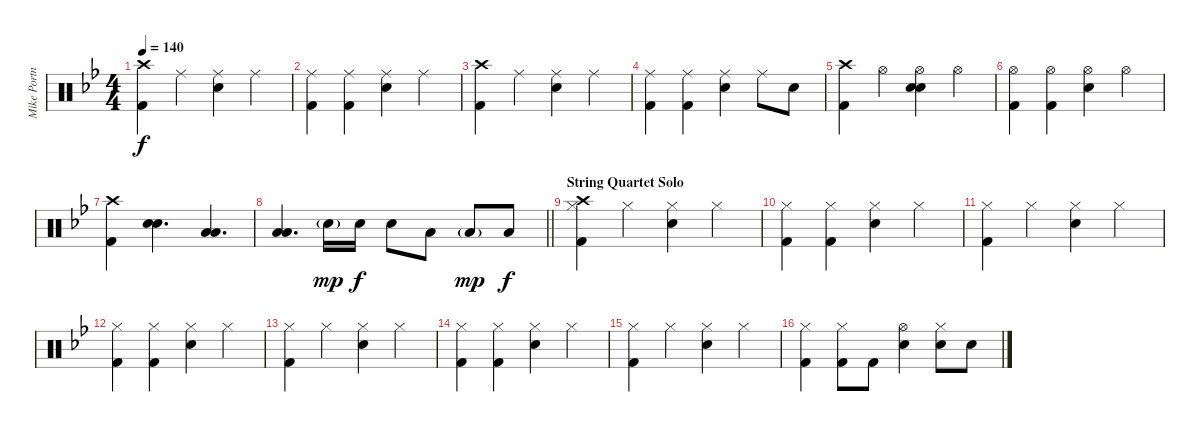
\track ("Mike Portnoy" "Mike Portn") {instrument percussion}
\staff {score}
\articulation defaults
\ts (4 4)
\tempo 140
\clef neutral
\ks bb
("Crash high (hit)" "Kick (hit) 2").4{dy f} "Ride (middle)".4 ("Ride (middle)" "Electric Snare (hit)").4 "Ride (middle)".4 |
("Ride (middle)" "Kick (hit) 2").4 ("Ride (middle)" "Kick (hit) 2").4 ("Ride (middle)" "Electric Snare (hit)").4 "Ride (middle)".4 |
("Crash high (hit)" "Kick (hit) 2").4 "Ride (middle)".4 ("Ride (middle)" "Electric Snare (hit)").4 "Ride (middle)".4 |
("Ride (middle)" "Kick (hit) 2").4 ("Ride (middle)" "Kick (hit) 2").4 ("Ride (middle)" "Electric Snare (hit)").4 "Ride (middle)".8 "Electric Snare (hit)".8 |
("Crash high (hit)" "Kick (hit) 2").4 "Hi-Hat (open)".4 ("Hi-Hat (open)" "Electric Snare (hit)" "Snare (hit) 2").4 "Hi-Hat (open)".4 |
("Hi-Hat (open)" "Kick (hit) 2").4 ("Hi-Hat (open)" "Kick (hit) 2").4 ("Hi-Hat (open)" "Electric Snare (hit)").4 "Hi-Hat (open)".4 |
("Crash high (hit)" "Kick (hit) 2").4 ("Electric Snare (hit)" "Electric Snare (hit)").4{d bd 60} ("Low Tom (hit)" "Low Tom (hit)").4{d bd 60} |
\barLineRight lightlight
("Low Floor Tom (hit)" "Low Floor Tom (hit)").4{d bd 60} "Electric Snare (hit)"{g}.16{dy mp} "Electric Snare (hit)".16{dy f} "Electric Snare (hit)".8 "Low Tom (hit)".8 "Low Tom (hit)"{g}.8{dy mp} "Low Floor Tom (hit)".8{dy f} |
\section ("" "String Quartet Solo")
("Crash high (hit)" "Hi-Hat (closed)" "Kick (hit) 2").4 "Hi-Hat (closed)".4 ("Hi-Hat (closed)" "Electric Snare (hit)").4 "Hi-Hat (closed)".4 |
("Hi-Hat (closed)" "Kick (hit) 2").4 ("Hi-Hat (closed)" "Kick (hit) 2").4 ("Hi-Hat (closed)" "Electric Snare (hit)").4 "Hi-Hat (closed)".4 |
("Hi-Hat (closed)" "Kick (hit) 2").4 "Hi-Hat (closed)".4 ("Hi-Hat (closed)" "Electric Snare (hit)").4 "Hi-Hat (closed)".4 |
("Hi-Hat (closed)" "Kick (hit) 2").4 ("Hi-Hat (closed)" "Kick (hit) 2").4 ("Hi-Hat (closed)" "Electric Snare (hit)").4 "Hi-Hat (closed)".4 |
("Hi-Hat (closed)" "Kick (hit) 2").4 "Hi-Hat (closed)".4 ("Hi-Hat (closed)" "Electric Snare (hit)").4 "Hi-Hat (closed)".4 |
("Hi-Hat (closed)" "Kick (hit) 2").4 ("Hi-Hat (closed)" "Kick (hit) 2").4 ("Hi-Hat (closed)" "Electric Snare (hit)").4 "Hi-Hat (closed)".4 |
("Hi-Hat (closed)" "Kick (hit) 2").4 "Hi-Hat (closed)".4 ("Hi-Hat (closed)" "Electric Snare (hit)").4 "Hi-Hat (closed)".4 |
("Hi-Hat (closed)" "Kick (hit) 2").4 ("Hi-Hat (closed)" "Kick (hit) 2").8 "Kick (hit) 2".8 ("Hi-Hat (open)" "Electric Snare (hit)").4 ("Hi-Hat (closed)" "Electric Snare (hit)").8 "Electric Snare (hit)".8
